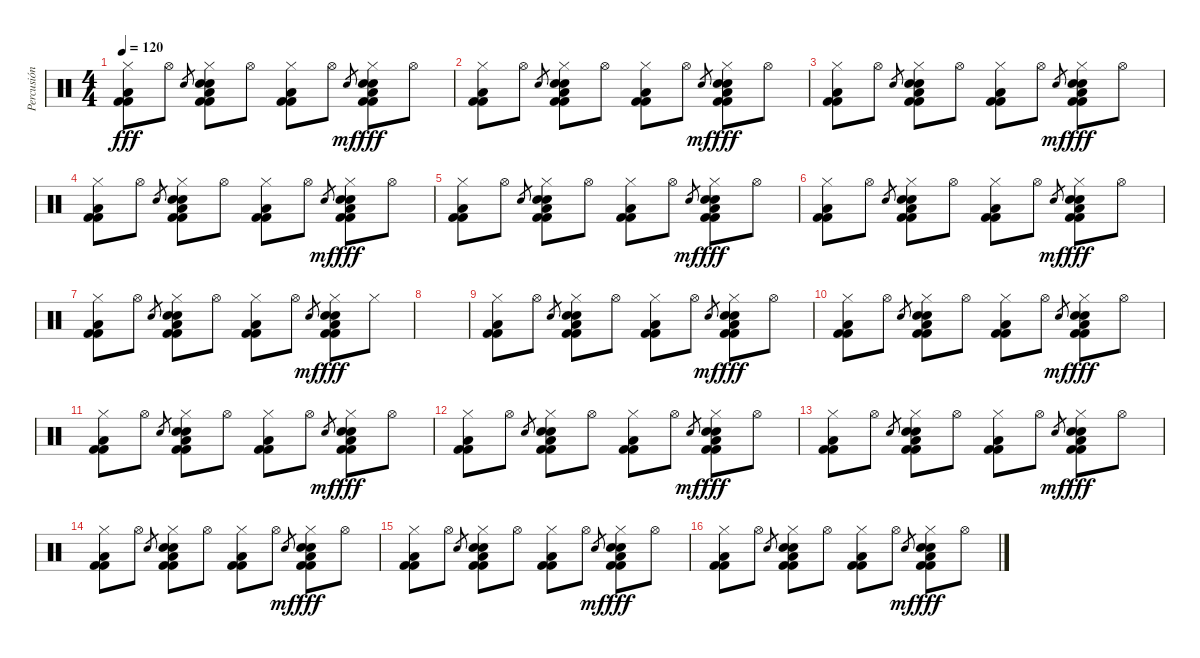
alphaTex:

\track ("Percusión I" "Percusión ") {instrument percussion}
\staff {score}
\articulation defaults
\ts (4 4)
\tempo 120
\clef neutral
\ks c
("Kick (hit) 2" "Hi-Hat (closed)" "Low Floor Tom (hit)" "Kick (hit) 2").8{dy fff} "Hi-Hat (open)".8 "Hand Clap (hit)".8{gr} ("Kick (hit) 2" "Hi-Hat (closed)" "Electric Snare (hit)" "Hand Clap (hit)" "Low Floor Tom (hit)" "Kick (hit) 2").8 "Hi-Hat (open)".8 ("Kick (hit) 2" "Hi-Hat (closed)" "Low Floor Tom (hit)" "Kick (hit) 2").8 "Hi-Hat (open)".8 "Hand Clap (hit)".8{gr dy mf} ("Kick (hit) 2" "Hi-Hat (closed)" "Electric Snare (hit)" "Hand Clap (hit)" "Low Floor Tom (hit)" "Kick (hit) 2").8{dy fff} "Hi-Hat (open)".8 |
("Kick (hit) 2" "Hi-Hat (closed)" "Low Floor Tom (hit)" "Kick (hit) 2").8 "Hi-Hat (open)".8 "Hand Clap (hit)".8{gr} ("Kick (hit) 2" "Hi-Hat (closed)" "Electric Snare (hit)" "Hand Clap (hit)" "Low Floor Tom (hit)" "Kick (hit) 2").8 "Hi-Hat (open)".8 ("Kick (hit) 2" "Hi-Hat (closed)" "Low Floor Tom (hit)" "Kick (hit) 2").8 "Hi-Hat (open)".8 "Hand Clap (hit)".8{gr dy mf} ("Kick (hit) 2" "Hi-Hat (closed)" "Electric Snare (hit)" "Hand Clap (hit)" "Low Floor Tom (hit)" "Kick (hit) 2").8{dy fff} "Hi-Hat (open)".8 |
("Kick (hit) 2" "Hi-Hat (closed)" "Low Floor Tom (hit)" "Kick (hit) 2").8 "Hi-Hat (open)".8 "Hand Clap (hit)".8{gr} ("Kick (hit) 2" "Hi-Hat (closed)" "Electric Snare (hit)" "Hand Clap (hit)" "Low Floor Tom (hit)" "Kick (hit) 2").8 "Hi-Hat (open)".8 ("Kick (hit) 2" "Hi-Hat (closed)" "Low Floor Tom (hit)" "Kick (hit) 2").8 "Hi-Hat (open)".8 "Hand Clap (hit)".8{gr dy mf} ("Kick (hit) 2" "Hi-Hat (closed)" "Electric Snare (hit)" "Hand Clap (hit)" "Low Floor Tom (hit)" "Kick (hit) 2").8{dy fff} "Hi-Hat (open)".8 |
("Kick (hit) 2" "Hi-Hat (closed)" "Low Floor Tom (hit)" "Kick (hit) 2").8 "Hi-Hat (open)".8 "Hand Clap (hit)".8{gr} ("Kick (hit) 2" "Hi-Hat (closed)" "Electric Snare (hit)" "Hand Clap (hit)" "Low Floor Tom (hit)" "Kick (hit) 2").8 "Hi-Hat (open)".8 ("Kick (hit) 2" "Hi-Hat (closed)" "Low Floor Tom (hit)" "Kick (hit) 2").8 "Hi-Hat (open)".8 "Hand Clap (hit)".8{gr dy mf} ("Kick (hit) 2" "Hi-Hat (closed)" "Electric Snare (hit)" "Hand Clap (hit)" "Low Floor Tom (hit)" "Kick (hit) 2").8{dy fff} "Hi-Hat (open)".8 |
("Kick (hit) 2" "Hi-Hat (closed)" "Low Floor Tom (hit)" "Kick (hit) 2").8 "Hi-Hat (open)".8 "Hand Clap (hit)".8{gr} ("Kick (hit) 2" "Hi-Hat (closed)" "Electric Snare (hit)" "Hand Clap (hit)" "Low Floor Tom (hit)" "Kick (hit) 2").8 "Hi-Hat (open)".8 ("Kick (hit) 2" "Hi-Hat (closed)" "Low Floor Tom (hit)" "Kick (hit) 2").8 "Hi-Hat (open)".8 "Hand Clap (hit)".8{gr dy mf} ("Kick (hit) 2" "Hi-Hat (closed)" "Electric Snare (hit)" "Hand Clap (hit)" "Low Floor Tom (hit)" "Kick (hit) 2").8{dy fff} "Hi-Hat (open)".8 |
("Kick (hit) 2" "Hi-Hat (closed)" "Low Floor Tom (hit)" "Kick (hit) 2").8 "Hi-Hat (open)".8 "Hand Clap (hit)".8{gr} ("Kick (hit) 2" "Hi-Hat (closed)" "Electric Snare (hit)" "Hand Clap (hit)" "Low Floor Tom (hit)" "Kick (hit) 2").8 "Hi-Hat (open)".8 ("Kick (hit) 2" "Hi-Hat (closed)" "Low Floor Tom (hit)" "Kick (hit) 2").8 "Hi-Hat (open)".8 "Hand Clap (hit)".8{gr dy mf} ("Kick (hit) 2" "Hi-Hat (closed)" "Electric Snare (hit)" "Hand Clap (hit)" "Low Floor Tom (hit)" "Kick (hit) 2").8{dy fff} "Hi-Hat (open)".8 |
("Kick (hit) 2" "Hi-Hat (closed)" "Low Floor Tom (hit)" "Kick (hit) 2").8 "Hi-Hat (open)".8 "Hand Clap (hit)".8{gr} ("Kick (hit) 2" "Hi-Hat (closed)" "Electric Snare (hit)" "Hand Clap (hit)" "Low Floor Tom (hit)" "Kick (hit) 2").8 "Hi-Hat (open)".8 ("Kick (hit) 2" "Hi-Hat (closed)" "Low Floor Tom (hit)" "Kick (hit) 2").8 "Hi-Hat (open)".8 "Hand Clap (hit)".8{gr dy mf} ("Kick (hit) 2" "Hi-Hat (closed)" "Electric Snare (hit)" "Hand Clap (hit)" "Low Floor Tom (hit)" "Kick (hit) 2").8{dy fff} "Hi-Hat (closed)".8 |
|
("Kick (hit) 2" "Hi-Hat (closed)" "Low Floor Tom (hit)" "Kick (hit) 2").8 "Hi-Hat (open)".8 "Hand Clap (hit)".8{gr} ("Kick (hit) 2" "Hi-Hat (closed)" "Electric Snare (hit)" "Hand Clap (hit)" "Low Floor Tom (hit)" "Kick (hit) 2").8 "Hi-Hat (open)".8 ("Kick (hit) 2" "Hi-Hat (closed)" "Low Floor Tom (hit)" "Kick (hit) 2").8 "Hi-Hat (open)".8 "Hand Clap (hit)".8{gr dy mf} ("Kick (hit) 2" "Hi-Hat (closed)" "Electric Snare (hit)" "Hand Clap (hit)" "Low Floor Tom (hit)" "Kick (hit) 2").8{dy fff} "Hi-Hat (open)".8 |
("Kick (hit) 2" "Hi-Hat (closed)" "Low Floor Tom (hit)" "Kick (hit) 2").8 "Hi-Hat (open)".8 "Hand Clap (hit)".8{gr} ("Kick (hit) 2" "Hi-Hat (closed)" "Electric Snare (hit)" "Hand Clap (hit)" "Low Floor Tom (hit)" "Kick (hit) 2").8 "Hi-Hat (open)".8 ("Kick (hit) 2" "Hi-Hat (closed)" "Low Floor Tom (hit)" "Kick (hit) 2").8 "Hi-Hat (open)".8 "Hand Clap (hit)".8{gr dy mf} ("Kick (hit) 2" "Hi-Hat (closed)" "Electric Snare (hit)" "Hand Clap (hit)" "Low Floor Tom (hit)" "Kick (hit) 2").8{dy fff} "Hi-Hat (open)".8 |
("Kick (hit) 2" "Hi-Hat (closed)" "Low Floor Tom (hit)" "Kick (hit) 2").8 "Hi-Hat (open)".8 "Hand Clap (hit)".8{gr} ("Kick (hit) 2" "Hi-Hat (closed)" "Electric Snare (hit)" "Hand Clap (hit)" "Low Floor Tom (hit)" "Kick (hit) 2").8 "Hi-Hat (open)".8 ("Kick (hit) 2" "Hi-Hat (closed)" "Low Floor Tom (hit)" "Kick (hit) 2").8 "Hi-Hat (open)".8 "Hand Clap (hit)".8{gr dy mf} ("Kick (hit) 2" "Hi-Hat (closed)" "Electric Snare (hit)" "Hand Clap (hit)" "Low Floor Tom (hit)" "Kick (hit) 2").8{dy fff} "Hi-Hat (open)".8 |
("Kick (hit) 2" "Hi-Hat (closed)" "Low Floor Tom (hit)" "Kick (hit) 2").8 "Hi-Hat (open)".8 "Hand Clap (hit)".8{gr} ("Kick (hit) 2" "Hi-Hat (closed)" "Electric Snare (hit)" "Hand Clap (hit)" "Low Floor Tom (hit)" "Kick (hit) 2").8 "Hi-Hat (open)".8 ("Kick (hit) 2" "Hi-Hat (closed)" "Low Floor Tom (hit)" "Kick (hit) 2").8 "Hi-Hat (open)".8 "Hand Clap (hit)".8{gr dy mf} ("Kick (hit) 2" "Hi-Hat (closed)" "Electric Snare (hit)" "Hand Clap (hit)" "Low Floor Tom (hit)" "Kick (hit) 2").8{dy fff} "Hi-Hat (open)".8 |
("Kick (hit) 2" "Hi-Hat (closed)" "Low Floor Tom (hit)" "Kick (hit) 2").8 "Hi-Hat (open)".8 "Hand Clap (hit)".8{gr} ("Kick (hit) 2" "Hi-Hat (closed)" "Electric Snare (hit)" "Hand Clap (hit)" "Low Floor Tom (hit)" "Kick (hit) 2").8 "Hi-Hat (open)".8 ("Kick (hit) 2" "Hi-Hat (closed)" "Low Floor Tom (hit)" "Kick (hit) 2").8 "Hi-Hat (open)".8 "Hand Clap (hit)".8{gr dy mf} ("Kick (hit) 2" "Hi-Hat (closed)" "Electric Snare (hit)" "Hand Clap (hit)" "Low Floor Tom (hit)" "Kick (hit) 2").8{dy fff} "Hi-Hat (open)".8 |
("Kick (hit) 2" "Hi-Hat (closed)" "Low Floor Tom (hit)" "Kick (hit) 2").8 "Hi-Hat (open)".8 "Hand Clap (hit)".8{gr} ("Kick (hit) 2" "Hi-Hat (closed)" "Electric Snare (hit)" "Hand Clap (hit)" "Low Floor Tom (hit)" "Kick (hit) 2").8 "Hi-Hat (open)".8 ("Kick (hit) 2" "Hi-Hat (closed)" "Low Floor Tom (hit)" "Kick (hit) 2").8 "Hi-Hat (open)".8 "Hand Clap (hit)".8{gr dy mf} ("Kick (hit) 2" "Hi-Hat (closed)" "Electric Snare (hit)" "Hand Clap (hit)" "Low Floor Tom (hit)" "Kick (hit) 2").8{dy fff} "Hi-Hat (open)".8 |
("Kick (hit) 2" "Hi-Hat (closed)" "Low Floor Tom (hit)" "Kick (hit) 2").8 "Hi-Hat (open)".8 "Hand Clap (hit)".8{gr} ("Kick (hit) 2" "Hi-Hat (closed)" "Electric Snare (hit)" "Hand Clap (hit)" "Low Floor Tom (hit)" "Kick (hit) 2").8 "Hi-Hat (open)".8 ("Kick (hit) 2" "Hi-Hat (closed)" "Low Floor Tom (hit)" "Kick (hit) 2").8 "Hi-Hat (open)".8 "Hand Clap (hit)".8{gr dy mf} ("Kick (hit) 2" "Hi-Hat (closed)" "Electric Snare (hit)" "Hand Clap (hit)" "Low Floor Tom (hit)" "Kick (hit) 2").8{dy fff} "Hi-Hat (open)".8 |
("Kick (hit) 2" "Hi-Hat (closed)" "Low Floor Tom (hit)" "Kick (hit) 2").8 "Hi-Hat (open)".8 "Hand Clap (hit)".8{gr} ("Kick (hit) 2" "Hi-Hat (closed)" "Electric Snare (hit)" "Hand Clap (hit)" "Low Floor Tom (hit)" "Kick (hit) 2").8 "Hi-Hat (open)".8 ("Kick (hit) 2" "Hi-Hat (closed)" "Low Floor Tom (hit)" "Kick (hit) 2").8 "Hi-Hat (open)".8 "Hand Clap (hit)".8{gr dy mf} ("Kick (hit) 2" "Hi-Hat (closed)" "Electric Snare (hit)" "Hand Clap (hit)" "Low Floor Tom (hit)" "Kick (hit) 2").8{dy fff} "Hi-Hat (open)".8
